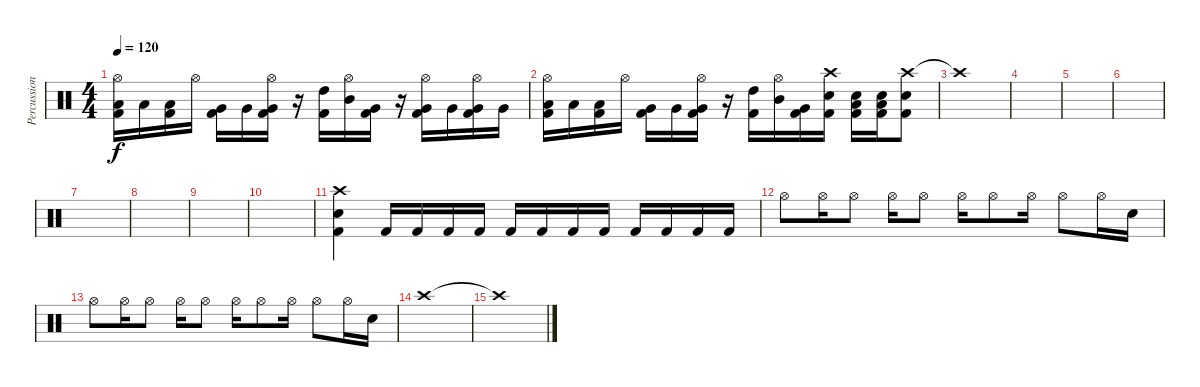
\track ("Percussion" "Percussion") {instrument percussion}
\staff {score}
\articulation defaults
\ts (4 4)
\tempo 120
\clef neutral
\ks c
("Low Tom (hit)" "Hi-Hat (open)" "Kick (hit) 2").16{dy f} "Low Tom (hit)".16 ("Low Tom (hit)" "Kick (hit) 2").16 "Hi-Hat (open)".16 ("Very Low Tom (hit)" "Kick (hit) 2").16 "Very Low Tom (hit)".16 ("Very Low Tom (hit)" "Hi-Hat (open)" "Kick (hit) 2").16 r.16 ("High Tom (hit)" "Kick (hit) 2").16 ("Mid Tom (hit)" "Hi-Hat (open)").16 ("Very Low Tom (hit)" "Kick (hit) 2").16 r.16 ("Very Low Tom (hit)" "Hi-Hat (open)" "Kick (hit) 2").16 "Very Low Tom (hit)".16 ("Very Low Tom (hit)" "Hi-Hat (open)" "Kick (hit) 2").16 "Very Low Tom (hit)".16 |
("Low Tom (hit)" "Hi-Hat (open)" "Kick (hit) 2").16 "Low Tom (hit)".16 ("Low Tom (hit)" "Kick (hit) 2").16 "Hi-Hat (open)".16 ("Very Low Tom (hit)" "Kick (hit) 2").16 "Very Low Tom (hit)".16 ("Very Low Tom (hit)" "Hi-Hat (open)" "Kick (hit) 2").16 r.16 ("High Tom (hit)" "Kick (hit) 2").16 ("Mid Tom (hit)" "Hi-Hat (open)").16 ("Very Low Tom (hit)" "Kick (hit) 2").16 ("Electric Snare (hit)" "Crash high (hit)" "Kick (hit) 2").16 ("Low Floor Tom (hit)" "Electric Snare (hit)" "Kick (hit) 2").16 ("Low Floor Tom (hit)" "Electric Snare (hit)" "Kick (hit) 2").16 ("Crash high (hit)" "Electric Snare (hit)" "Kick (hit) 2").8 |
"Crash high (hit)"{t}.1 |
|
|
|
|
|
|
|
("Crash high (hit)" "Electric Snare (hit)" "Kick (hit) 2").4 "Kick (hit) 2".16 "Kick (hit) 2".16 "Kick (hit) 2".16 "Kick (hit) 2".16 "Kick (hit) 2".16 "Kick (hit) 2".16 "Kick (hit) 2".16 "Kick (hit) 2".16 "Kick (hit) 2".16 "Kick (hit) 2".16 "Kick (hit) 2".16 "Kick (hit) 2".16 |
"Hi-Hat (open)".8 "Hi-Hat (open)".16 "Hi-Hat (open)".8 "Hi-Hat (open)".16 "Hi-Hat (open)".8 "Hi-Hat (open)".16 "Hi-Hat (open)".8 "Hi-Hat (open)".16 "Hi-Hat (open)".8 "Hi-Hat (open)".16 "Electric Snare (hit)".16 |
"Hi-Hat (open)".8 "Hi-Hat (open)".16 "Hi-Hat (open)".8 "Hi-Hat (open)".16 "Hi-Hat (open)".8 "Hi-Hat (open)".16 "Hi-Hat (open)".8 "Hi-Hat (open)".16 "Hi-Hat (open)".8 "Hi-Hat (open)".16 "Electric Snare (hit)".16 |
"Crash high (hit)".1 |
"Crash high (hit)"{t}.1
